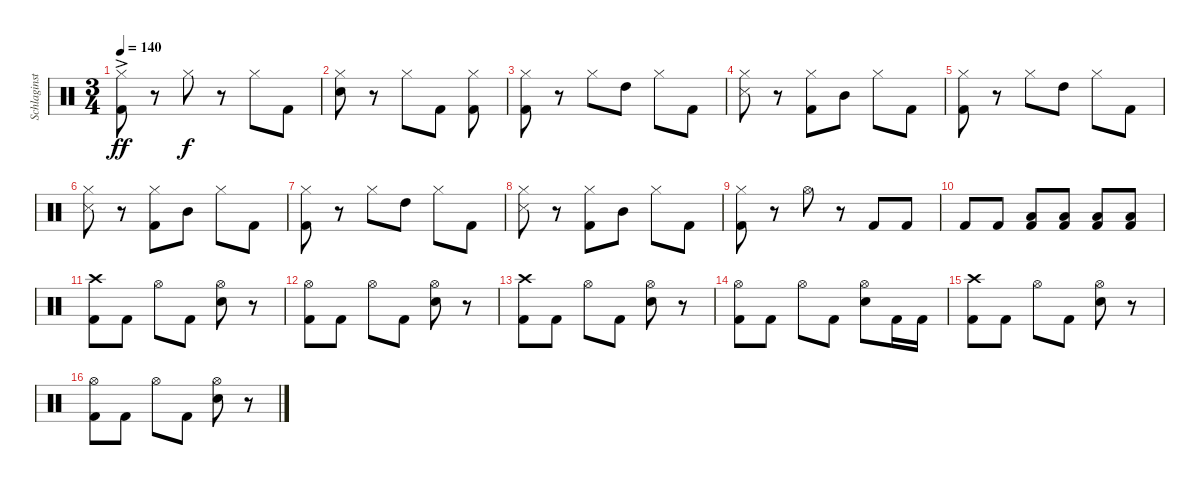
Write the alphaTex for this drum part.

\track ("Schlaginstrumente - Auswahl" "Schlaginst") {instrument percussion}
\staff {score}
\articulation defaults
\ts (3 4)
\tempo 140
\clef neutral
\ks c
("Hi-Hat (closed)"{ac} "Kick (hit) 2").8{dy ff} r.8 "Hi-Hat (closed)".8{dy f} r.8 "Hi-Hat (closed)".8 "Kick (hit) 2".8 |
("Hi-Hat (closed)" "Electric Snare (hit)").8 r.8 "Hi-Hat (closed)".8 "Kick (hit) 2".8 ("Hi-Hat (closed)" "Kick (hit) 2").8 |
("Hi-Hat (closed)" "Kick (hit) 2").8 r.8 "Hi-Hat (closed)".8 "High Tom (hit)".8 "Hi-Hat (closed)".8 "Kick (hit) 2".8 |
("Hi-Hat (closed)" "Snare (side stick) 3").8 r.8 ("Hi-Hat (closed)" "Kick (hit) 2").8 "Mid Tom (hit)".8 "Hi-Hat (closed)".8 "Kick (hit) 2".8 |
("Hi-Hat (closed)" "Kick (hit) 2").8 r.8 "Hi-Hat (closed)".8 "High Tom (hit)".8 "Hi-Hat (closed)".8 "Kick (hit) 2".8 |
("Hi-Hat (closed)" "Snare (side stick) 3").8 r.8 ("Hi-Hat (closed)" "Kick (hit) 2").8 "Mid Tom (hit)".8 "Hi-Hat (closed)".8 "Kick (hit) 2".8 |
("Hi-Hat (closed)" "Kick (hit) 2").8 r.8 "Hi-Hat (closed)".8 "High Tom (hit)".8 "Hi-Hat (closed)".8 "Kick (hit) 2".8 |
("Hi-Hat (closed)" "Snare (side stick) 3").8 r.8 ("Hi-Hat (closed)" "Kick (hit) 2").8 "Mid Tom (hit)".8 "Hi-Hat (closed)".8 "Kick (hit) 2".8 |
("Hi-Hat (closed)" "Kick (hit) 2").8 r.8 "Hi-Hat (open)".8 r.8 "Kick (hit) 2".8 "Kick (hit) 2".8 |
"Kick (hit) 2".8 "Kick (hit) 2".8 ("Low Tom (hit)" "Kick (hit) 2").8 ("Low Tom (hit)" "Kick (hit) 2").8 ("Low Tom (hit)" "Kick (hit) 2").8 ("Low Tom (hit)" "Kick (hit) 2").8 |
("Crash high (hit)" "Kick (hit) 2").8 "Kick (hit) 2".8 "Hi-Hat (open)".8 "Kick (hit) 2".8 ("Hi-Hat (open)" "Electric Snare (hit)").8 r.8 |
("Hi-Hat (open)" "Kick (hit) 2").8 "Kick (hit) 2".8 "Hi-Hat (open)".8 "Kick (hit) 2".8 ("Hi-Hat (open)" "Electric Snare (hit)").8 r.8 |
("Crash high (hit)" "Kick (hit) 2").8 "Kick (hit) 2".8 "Hi-Hat (open)".8 "Kick (hit) 2".8 ("Hi-Hat (open)" "Electric Snare (hit)").8 r.8 |
("Hi-Hat (open)" "Kick (hit) 2").8 "Kick (hit) 2".8 "Hi-Hat (open)".8 "Kick (hit) 2".8 ("Hi-Hat (open)" "Electric Snare (hit)").8 "Kick (hit) 2".16 "Kick (hit) 2".16 |
("Crash high (hit)" "Kick (hit) 2").8 "Kick (hit) 2".8 "Hi-Hat (open)".8 "Kick (hit) 2".8 ("Hi-Hat (open)" "Electric Snare (hit)").8 r.8 |
("Hi-Hat (open)" "Kick (hit) 2").8 "Kick (hit) 2".8 "Hi-Hat (open)".8 "Kick (hit) 2".8 ("Hi-Hat (open)" "Electric Snare (hit)").8 r.8
